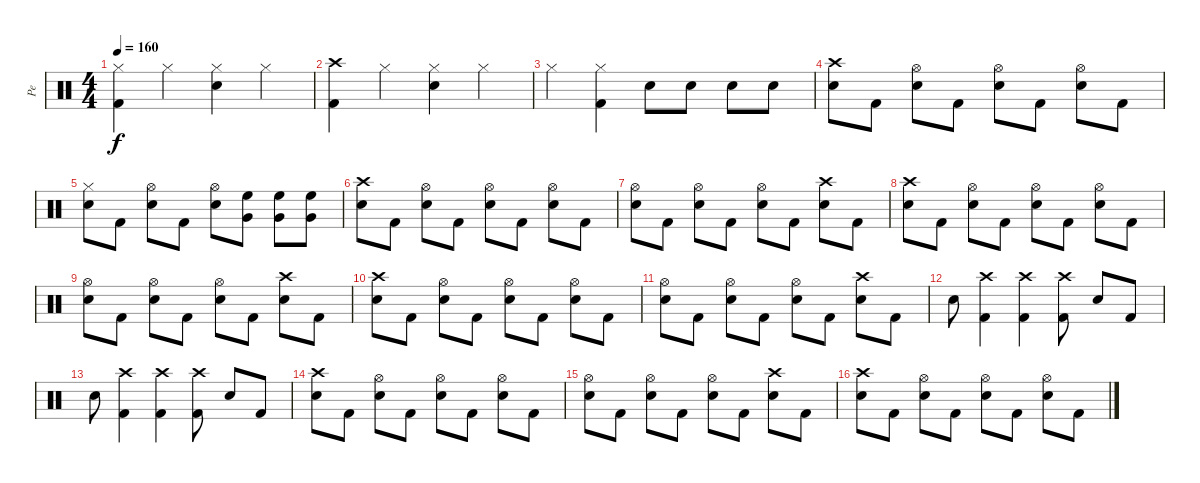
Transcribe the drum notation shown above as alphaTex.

\track ("Pe" "Pe") {instrument percussion}
\staff {score}
\articulation defaults
\ts (4 4)
\tempo 160
\clef neutral
\ks c
("Hi-Hat (closed)" "Kick (hit) 2").4{dy f} "Hi-Hat (closed)".4 ("Hi-Hat (closed)" "Snare (hit) 2").4 "Hi-Hat (closed)".4 |
("Crash high (hit)" "Kick (hit) 2").4 "Hi-Hat (closed)".4 ("Hi-Hat (closed)" "Snare (hit) 2").4 "Hi-Hat (closed)".4 |
"Hi-Hat (closed)".4 ("Hi-Hat (closed)" "Kick (hit) 2").4 "Snare (hit) 2".8 "Snare (hit) 2".8 "Snare (hit) 2".8 "Snare (hit) 2".8 |
("Crash high (hit)" "Snare (hit) 2").8 "Kick (hit) 2".8 ("Hi-Hat (open)" "Snare (hit) 2").8 "Kick (hit) 2".8 ("Hi-Hat (open)" "Snare (hit) 2").8 "Kick (hit) 2".8 ("Hi-Hat (open)" "Snare (hit) 2").8 "Kick (hit) 2".8 |
("Hi-Hat (closed)" "Snare (hit) 2").8 "Kick (hit) 2".8 ("Hi-Hat (open)" "Snare (hit) 2").8 "Kick (hit) 2".8 ("Hi-Hat (open)" "Snare (hit) 2").8 ("High Floor Tom (hit)" "Very Low Tom (hit)").8 ("High Floor Tom (hit)" "Very Low Tom (hit)").8 ("High Floor Tom (hit)" "Very Low Tom (hit)").8 |
("Crash high (hit)" "Snare (hit) 2").8 "Kick (hit) 2".8 ("Hi-Hat (open)" "Snare (hit) 2").8 "Kick (hit) 2".8 ("Hi-Hat (open)" "Snare (hit) 2").8 "Kick (hit) 2".8 ("Hi-Hat (open)" "Snare (hit) 2").8 "Kick (hit) 2".8 |
("Hi-Hat (open)" "Snare (hit) 2").8 "Kick (hit) 2".8 ("Hi-Hat (open)" "Snare (hit) 2").8 "Kick (hit) 2".8 ("Hi-Hat (open)" "Snare (hit) 2").8 "Kick (hit) 2".8 ("Crash high (hit)" "Snare (hit) 2").8 "Kick (hit) 2".8 |
("Crash high (hit)" "Snare (hit) 2").8 "Kick (hit) 2".8 ("Hi-Hat (open)" "Snare (hit) 2").8 "Kick (hit) 2".8 ("Hi-Hat (open)" "Snare (hit) 2").8 "Kick (hit) 2".8 ("Hi-Hat (open)" "Snare (hit) 2").8 "Kick (hit) 2".8 |
("Hi-Hat (open)" "Snare (hit) 2").8 "Kick (hit) 2".8 ("Hi-Hat (open)" "Snare (hit) 2").8 "Kick (hit) 2".8 ("Hi-Hat (open)" "Snare (hit) 2").8 "Kick (hit) 2".8 ("Crash high (hit)" "Snare (hit) 2").8 "Kick (hit) 2".8 |
("Crash high (hit)" "Snare (hit) 2").8 "Kick (hit) 2".8 ("Hi-Hat (open)" "Snare (hit) 2").8 "Kick (hit) 2".8 ("Hi-Hat (open)" "Snare (hit) 2").8 "Kick (hit) 2".8 ("Hi-Hat (open)" "Snare (hit) 2").8 "Kick (hit) 2".8 |
("Hi-Hat (open)" "Snare (hit) 2").8 "Kick (hit) 2".8 ("Hi-Hat (open)" "Snare (hit) 2").8 "Kick (hit) 2".8 ("Hi-Hat (open)" "Snare (hit) 2").8 "Kick (hit) 2".8 ("Crash high (hit)" "Snare (hit) 2").8 "Kick (hit) 2".8 |
"Snare (hit) 2".8 ("Crash high (hit)" "Kick (hit) 2").4 ("Crash high (hit)" "Kick (hit) 2").4 ("Kick (hit) 2" "Crash high (hit)").8 "Snare (hit) 2".8 "Kick (hit) 2".8 |
"Snare (hit) 2".8 ("Crash high (hit)" "Kick (hit) 2").4 ("Crash high (hit)" "Kick (hit) 2").4 ("Kick (hit) 2" "Crash high (hit)").8 "Snare (hit) 2".8 "Kick (hit) 2".8 |
("Crash high (hit)" "Snare (hit) 2").8 "Kick (hit) 2".8 ("Hi-Hat (open)" "Snare (hit) 2").8 "Kick (hit) 2".8 ("Hi-Hat (open)" "Snare (hit) 2").8 "Kick (hit) 2".8 ("Hi-Hat (open)" "Snare (hit) 2").8 "Kick (hit) 2".8 |
("Hi-Hat (open)" "Snare (hit) 2").8 "Kick (hit) 2".8 ("Hi-Hat (open)" "Snare (hit) 2").8 "Kick (hit) 2".8 ("Hi-Hat (open)" "Snare (hit) 2").8 "Kick (hit) 2".8 ("Crash high (hit)" "Snare (hit) 2").8 "Kick (hit) 2".8 |
("Crash high (hit)" "Snare (hit) 2").8 "Kick (hit) 2".8 ("Hi-Hat (open)" "Snare (hit) 2").8 "Kick (hit) 2".8 ("Hi-Hat (open)" "Snare (hit) 2").8 "Kick (hit) 2".8 ("Hi-Hat (open)" "Snare (hit) 2").8 "Kick (hit) 2".8
